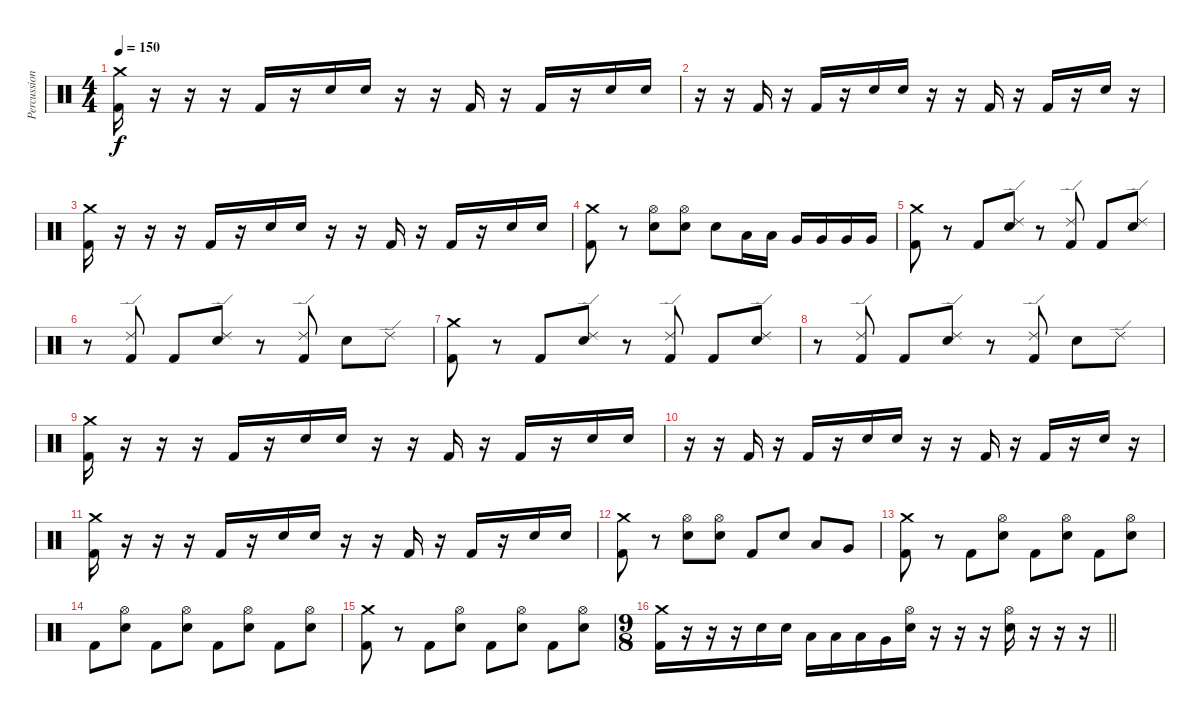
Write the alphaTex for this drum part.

\track ("Percussion" "Percussion") {instrument percussion}
\staff {score}
\articulation defaults
\ts (4 4)
\tempo 150
\clef neutral
\ks c
("Crash medium (hit)" "Kick (hit) 2").16{dy f} r.16 r.16 r.16 "Kick (hit) 2".16 r.16 "Electric Snare (hit)".16 "Electric Snare (hit)".16 r.16 r.16 "Kick (hit) 2".16 r.16 "Kick (hit) 2".16 r.16 "Electric Snare (hit)".16 "Electric Snare (hit)".16 |
r.16 r.16 "Kick (hit) 2".16 r.16 "Kick (hit) 2".16 r.16 "Electric Snare (hit)".16 "Electric Snare (hit)".16 r.16 r.16 "Kick (hit) 2".16 r.16 "Kick (hit) 2".16 r.16 "Electric Snare (hit)".16 r.16 |
("Crash medium (hit)" "Kick (hit) 2").16 r.16 r.16 r.16 "Kick (hit) 2".16 r.16 "Electric Snare (hit)".16 "Electric Snare (hit)".16 r.16 r.16 "Kick (hit) 2".16 r.16 "Kick (hit) 2".16 r.16 "Electric Snare (hit)".16 "Electric Snare (hit)".16 |
("Crash medium (hit)" "Kick (hit) 2").8 r.8 ("Hi-Hat (open)" "Electric Snare (hit)").8 ("Hi-Hat (open)" "Electric Snare (hit)").8 "Electric Snare (hit)".8 "Low Tom (hit)".16 "Low Tom (hit)".16 "Very Low Tom (hit)".16 "Very Low Tom (hit)".16 "Very Low Tom (hit)".16 "Very Low Tom (hit)".16 |
("Crash medium (hit)" "Kick (hit) 2").8 r.8 "Kick (hit) 2".8 ("Ride (edge) 2" "Electric Snare (hit)").8 r.8 ("Ride (edge) 2" "Kick (hit) 2").8 "Kick (hit) 2".8 ("Ride (edge) 2" "Electric Snare (hit)").8 |
r.8 ("Ride (edge) 2" "Kick (hit) 2").8 "Kick (hit) 2".8 ("Ride (edge) 2" "Electric Snare (hit)").8 r.8 ("Ride (edge) 2" "Kick (hit) 2").8 "Electric Snare (hit)".8 "Ride (edge) 2".8 |
("Crash medium (hit)" "Kick (hit) 2").8 r.8 "Kick (hit) 2".8 ("Ride (edge) 2" "Electric Snare (hit)").8 r.8 ("Ride (edge) 2" "Kick (hit) 2").8 "Kick (hit) 2".8 ("Ride (edge) 2" "Electric Snare (hit)").8 |
r.8 ("Ride (edge) 2" "Kick (hit) 2").8 "Kick (hit) 2".8 ("Ride (edge) 2" "Electric Snare (hit)").8 r.8 ("Ride (edge) 2" "Kick (hit) 2").8 "Electric Snare (hit)".8 "Ride (edge) 2".8 |
("Crash medium (hit)" "Kick (hit) 2").16 r.16 r.16 r.16 "Kick (hit) 2".16 r.16 "Electric Snare (hit)".16 "Electric Snare (hit)".16 r.16 r.16 "Kick (hit) 2".16 r.16 "Kick (hit) 2".16 r.16 "Electric Snare (hit)".16 "Electric Snare (hit)".16 |
r.16 r.16 "Kick (hit) 2".16 r.16 "Kick (hit) 2".16 r.16 "Electric Snare (hit)".16 "Electric Snare (hit)".16 r.16 r.16 "Kick (hit) 2".16 r.16 "Kick (hit) 2".16 r.16 "Electric Snare (hit)".16 r.16 |
("Crash medium (hit)" "Kick (hit) 2").16 r.16 r.16 r.16 "Kick (hit) 2".16 r.16 "Electric Snare (hit)".16 "Electric Snare (hit)".16 r.16 r.16 "Kick (hit) 2".16 r.16 "Kick (hit) 2".16 r.16 "Electric Snare (hit)".16 "Electric Snare (hit)".16 |
("Crash medium (hit)" "Kick (hit) 2").8 r.8 ("Hi-Hat (open)" "Electric Snare (hit)").8 ("Hi-Hat (open)" "Electric Snare (hit)").8 "Kick (hit) 2".8 "Electric Snare (hit)".8 "Low Tom (hit)".8 "Very Low Tom (hit)".8 |
("Crash medium (hit)" "Kick (hit) 2").8 r.8 "Kick (hit) 2".8 ("Hi-Hat (open)" "Electric Snare (hit)").8 "Kick (hit) 2".8 ("Hi-Hat (open)" "Electric Snare (hit)").8 "Kick (hit) 2".8 ("Hi-Hat (open)" "Electric Snare (hit)").8 |
"Kick (hit) 2".8 ("Hi-Hat (open)" "Electric Snare (hit)").8 "Kick (hit) 2".8 ("Hi-Hat (open)" "Electric Snare (hit)").8 "Kick (hit) 2".8 ("Hi-Hat (open)" "Electric Snare (hit)").8 "Kick (hit) 2".8 ("Hi-Hat (open)" "Electric Snare (hit)").8 |
("Crash medium (hit)" "Kick (hit) 2").8 r.8 "Kick (hit) 2".8 ("Hi-Hat (open)" "Electric Snare (hit)").8 "Kick (hit) 2".8 ("Hi-Hat (open)" "Electric Snare (hit)").8 "Kick (hit) 2".8 ("Hi-Hat (open)" "Electric Snare (hit)").8 |
\ts (9 8)
\barLineRight lightlight
("Crash medium (hit)" "Kick (hit) 2").16 r.16 r.16 r.16 "Electric Snare (hit)".16 "Electric Snare (hit)".16 "Low Tom (hit)".16 "Low Tom (hit)".16 "Low Tom (hit)".16 "Very Low Tom (hit)".16 ("Hi-Hat (open)" "Electric Snare (hit)").16 r.16 r.16 r.16 ("Hi-Hat (open)" "Electric Snare (hit)").16 r.16 r.16 r.16
